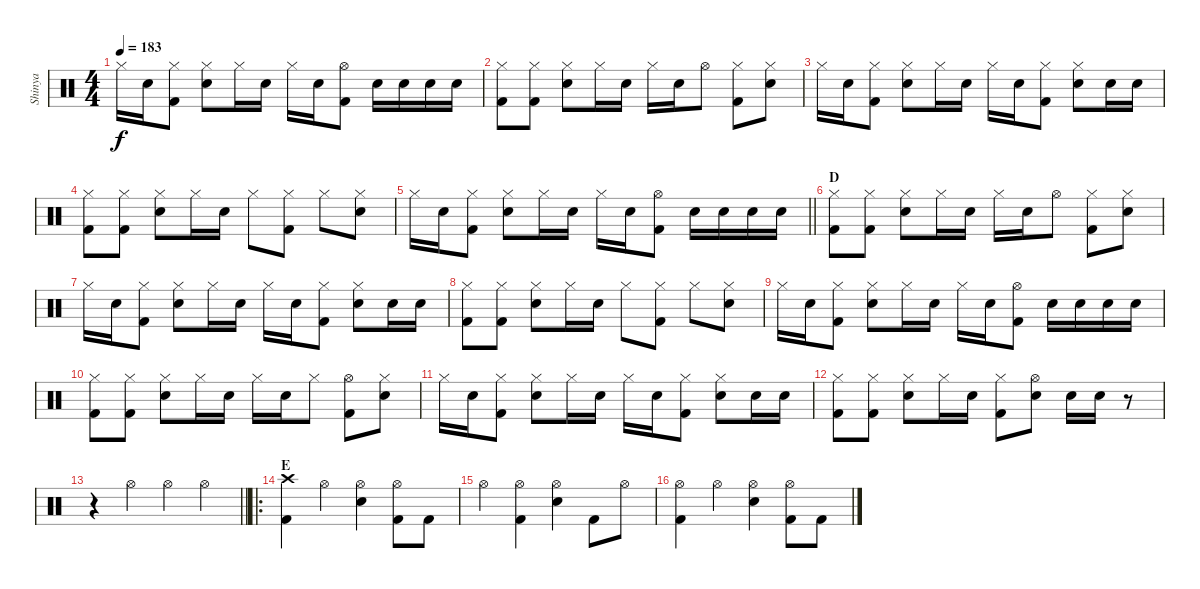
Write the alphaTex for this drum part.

\track ("Shinya" "Shinya") {instrument percussion}
\staff {score}
\articulation defaults
\ts (4 4)
\tempo 183
\clef neutral
\ks c "Hi-Hat (closed)".16{dy f} "Snare (hit) 2".16
("Hi-Hat (closed)" "Kick (hit) 2").8 ("Hi-Hat (closed)" "Snare (hit) 2").8 "Hi-Hat (closed)".16 "Snare (hit) 2".16 "Hi-Hat (closed)".16 "Snare (hit) 2".16 ("Hi-Hat (open)" "Kick (hit) 2").8 "Snare (hit) 2".16 "Snare (hit) 2".16 "Snare (hit) 2".16 "Snare (hit) 2".16 |
("Hi-Hat (closed)" "Kick (hit) 2").8 ("Hi-Hat (closed)" "Kick (hit) 2").8 ("Hi-Hat (closed)" "Snare (hit) 2").8 "Hi-Hat (closed)".16 "Snare (hit) 2".16 "Hi-Hat (closed)".16 "Snare (hit) 2".16 "Hi-Hat (open)".8 ("Hi-Hat (closed)" "Kick (hit) 2").8 ("Hi-Hat (closed)" "Snare (hit) 2").8 |
"Hi-Hat (closed)".16 "Snare (hit) 2".16 ("Hi-Hat (closed)" "Kick (hit) 2").8 ("Hi-Hat (closed)" "Snare (hit) 2").8 "Hi-Hat (closed)".16 "Snare (hit) 2".16 "Hi-Hat (closed)".16 "Snare (hit) 2".16 ("Hi-Hat (closed)" "Kick (hit) 2").8 ("Hi-Hat (closed)" "Snare (hit) 2").8 "Snare (hit) 2".16 "Snare (hit) 2".16 |
("Hi-Hat (closed)" "Kick (hit) 2").8 ("Hi-Hat (closed)" "Kick (hit) 2").8 ("Hi-Hat (closed)" "Snare (hit) 2").8 "Hi-Hat (closed)".16 "Snare (hit) 2".16 "Hi-Hat (closed)".8 ("Hi-Hat (closed)" "Kick (hit) 2").8 "Hi-Hat (closed)".8 ("Hi-Hat (closed)" "Snare (hit) 2").8 |
\barLineRight lightlight "Hi-Hat (closed)".16 "Snare (hit) 2".16
("Hi-Hat (closed)" "Kick (hit) 2").8 ("Hi-Hat (closed)" "Snare (hit) 2").8 "Hi-Hat (closed)".16 "Snare (hit) 2".16 "Hi-Hat (closed)".16 "Snare (hit) 2".16 ("Hi-Hat (open)" "Kick (hit) 2").8 "Snare (hit) 2".16 "Snare (hit) 2".16 "Snare (hit) 2".16 "Snare (hit) 2".16 |
\section ("" "D")
("Hi-Hat (closed)" "Kick (hit) 2").8 ("Hi-Hat (closed)" "Kick (hit) 2").8 ("Hi-Hat (closed)" "Snare (hit) 2").8 "Hi-Hat (closed)".16 "Snare (hit) 2".16 "Hi-Hat (closed)".16 "Snare (hit) 2".16 "Hi-Hat (open)".8 ("Hi-Hat (closed)" "Kick (hit) 2").8 ("Hi-Hat (closed)" "Snare (hit) 2").8 |
"Hi-Hat (closed)".16 "Snare (hit) 2".16 ("Hi-Hat (closed)" "Kick (hit) 2").8 ("Hi-Hat (closed)" "Snare (hit) 2").8 "Hi-Hat (closed)".16 "Snare (hit) 2".16 "Hi-Hat (closed)".16 "Snare (hit) 2".16 ("Hi-Hat (closed)" "Kick (hit) 2").8 ("Hi-Hat (closed)" "Snare (hit) 2").8 "Snare (hit) 2".16 "Snare (hit) 2".16 |
("Hi-Hat (closed)" "Kick (hit) 2").8 ("Hi-Hat (closed)" "Kick (hit) 2").8 ("Hi-Hat (closed)" "Snare (hit) 2").8 "Hi-Hat (closed)".16 "Snare (hit) 2".16 "Hi-Hat (closed)".8 ("Hi-Hat (closed)" "Kick (hit) 2").8 "Hi-Hat (closed)".8 ("Hi-Hat (closed)" "Snare (hit) 2").8 |
"Hi-Hat (closed)".16 "Snare (hit) 2".16 ("Hi-Hat (closed)" "Kick (hit) 2").8 ("Hi-Hat (closed)" "Snare (hit) 2").8 "Hi-Hat (closed)".16 "Snare (hit) 2".16 "Hi-Hat (closed)".16 "Snare (hit) 2".16 ("Hi-Hat (open)" "Kick (hit) 2").8 "Snare (hit) 2".16 "Snare (hit) 2".16 "Snare (hit) 2".16 "Snare (hit) 2".16 |
("Hi-Hat (closed)" "Kick (hit) 2").8 ("Hi-Hat (closed)" "Kick (hit) 2").8 ("Hi-Hat (closed)" "Snare (hit) 2").8 "Hi-Hat (closed)".16 "Snare (hit) 2".16 "Hi-Hat (closed)".16 "Snare (hit) 2".16 "Hi-Hat (closed)".8 ("Hi-Hat (open)" "Kick (hit) 2").8 ("Hi-Hat (closed)" "Snare (hit) 2").8 |
"Hi-Hat (closed)".16 "Snare (hit) 2".16 ("Hi-Hat (closed)" "Kick (hit) 2").8 ("Hi-Hat (closed)" "Snare (hit) 2").8 "Hi-Hat (closed)".16 "Snare (hit) 2".16 "Hi-Hat (closed)".16 "Snare (hit) 2".16 ("Hi-Hat (closed)" "Kick (hit) 2").8 ("Hi-Hat (closed)" "Snare (hit) 2").8 "Snare (hit) 2".16 "Snare (hit) 2".16 |
("Hi-Hat (closed)" "Kick (hit) 2").8 ("Hi-Hat (closed)" "Kick (hit) 2").8 ("Hi-Hat (closed)" "Snare (hit) 2").8 "Hi-Hat (closed)".16 "Snare (hit) 2".16 ("Hi-Hat (closed)" "Kick (hit) 2").8 ("Hi-Hat (open)" "Snare (hit) 2").8 "Snare (hit) 2".16 "Snare (hit) 2".16 r.8 |
\barLineRight lightlight
r.4 "Hi-Hat (open)".4 "Hi-Hat (open)".4 "Hi-Hat (open)".4 |
\ro
\section ("" "E")
("Crash high (hit)" "Kick (hit) 2").4 "Hi-Hat (open)".4 ("Hi-Hat (open)" "Snare (hit) 2").4 ("Hi-Hat (open)" "Kick (hit) 2").8 "Kick (hit) 2".8 |
"Hi-Hat (open)".4 ("Hi-Hat (open)" "Kick (hit) 2").4 ("Hi-Hat (open)" "Snare (hit) 2").4 "Kick (hit) 2".8 "Hi-Hat (open)".8 |
("Hi-Hat (open)" "Kick (hit) 2").4 "Hi-Hat (open)".4 ("Hi-Hat (open)" "Snare (hit) 2").4 ("Hi-Hat (open)" "Kick (hit) 2").8 "Kick (hit) 2".8
